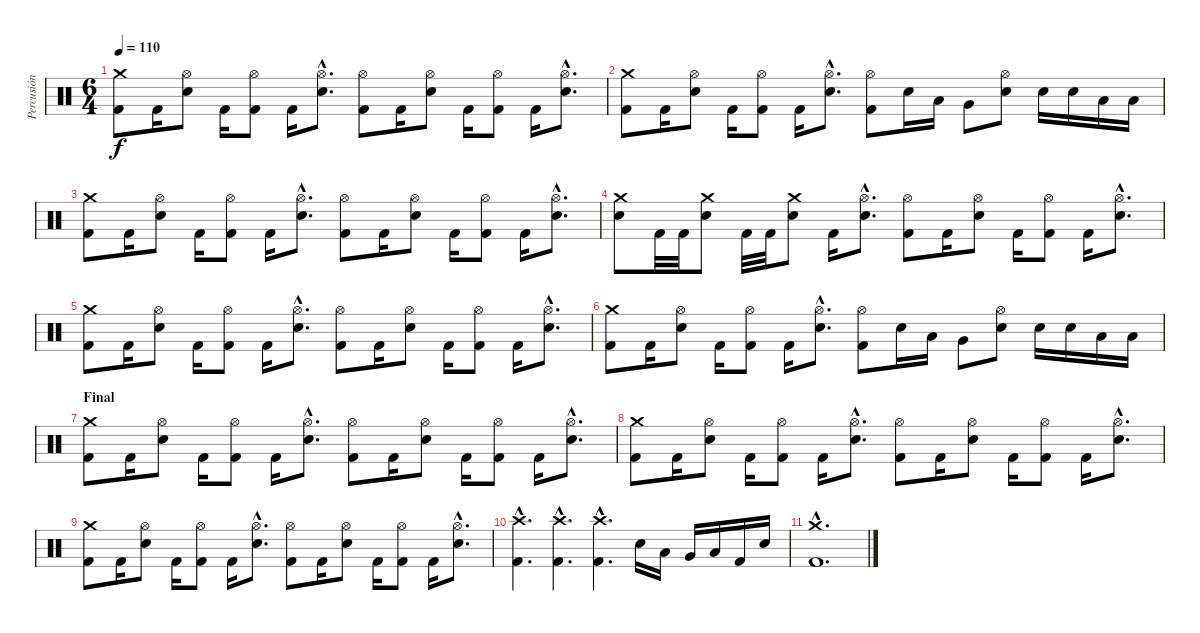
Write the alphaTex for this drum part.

\track ("Percusión" "Percusión") {instrument percussion}
\staff {score}
\articulation defaults
\ts (6 4)
\tempo 110
\clef neutral
\ks c
("Crash medium (hit)" "Kick (hit) 2").8{dy f} "Kick (hit) 2".16 ("Hi-Hat (open)" "Snare (hit) 2").8 "Kick (hit) 2".16 ("Hi-Hat (open)" "Kick (hit) 2").8 "Kick (hit) 2".16 ("Hi-Hat (open)"{hac} "Snare (hit) 2"{hac}).8{d} ("Hi-Hat (open)" "Kick (hit) 2").8 "Kick (hit) 2".16 ("Hi-Hat (open)" "Snare (hit) 2").8 "Kick (hit) 2".16 ("Hi-Hat (open)" "Kick (hit) 2").8 "Kick (hit) 2".16 ("Hi-Hat (open)" "Snare (hit) 2"{hac}).8{d} |
("Crash medium (hit)" "Kick (hit) 2").8 "Kick (hit) 2".16 ("Hi-Hat (open)" "Snare (hit) 2").8 "Kick (hit) 2".16 ("Hi-Hat (open)" "Kick (hit) 2").8 "Kick (hit) 2".16 ("Hi-Hat (open)"{hac} "Snare (hit) 2"{hac}).8{d} ("Hi-Hat (open)" "Kick (hit) 2").8 "Snare (hit) 2".16 "Low Tom (hit)".16 "Very Low Tom (hit)".8 ("Hi-Hat (open)" "Snare (hit) 2").8 "Snare (hit) 2".16 "Snare (hit) 2".16 "Low Tom (hit)".16 "Low Tom (hit)".16 |
("Crash medium (hit)" "Kick (hit) 2").8 "Kick (hit) 2".16 ("Hi-Hat (open)" "Snare (hit) 2").8 "Kick (hit) 2".16 ("Hi-Hat (open)" "Kick (hit) 2").8 "Kick (hit) 2".16 ("Hi-Hat (open)"{hac} "Snare (hit) 2"{hac}).8{d} ("Hi-Hat (open)" "Kick (hit) 2").8 "Kick (hit) 2".16 ("Hi-Hat (open)" "Snare (hit) 2").8 "Kick (hit) 2".16 ("Hi-Hat (open)" "Kick (hit) 2").8 "Kick (hit) 2".16 ("Hi-Hat (open)" "Snare (hit) 2"{hac}).8{d} |
("Crash medium (hit)" "Snare (hit) 2").8 "Kick (hit) 2".32 "Kick (hit) 2".32 ("Crash medium (hit)" "Snare (hit) 2").8 "Kick (hit) 2".32 "Kick (hit) 2".32 ("Crash medium (hit)" "Snare (hit) 2").8 "Kick (hit) 2".16 ("Hi-Hat (open)"{hac} "Snare (hit) 2"{hac}).8{d} ("Hi-Hat (open)" "Kick (hit) 2").8 "Kick (hit) 2".16 ("Hi-Hat (open)" "Snare (hit) 2").8 "Kick (hit) 2".16 ("Hi-Hat (open)" "Kick (hit) 2").8 "Kick (hit) 2".16 ("Hi-Hat (open)" "Snare (hit) 2"{hac}).8{d} |
("Crash medium (hit)" "Kick (hit) 2").8 "Kick (hit) 2".16 ("Hi-Hat (open)" "Snare (hit) 2").8 "Kick (hit) 2".16 ("Hi-Hat (open)" "Kick (hit) 2").8 "Kick (hit) 2".16 ("Hi-Hat (open)"{hac} "Snare (hit) 2"{hac}).8{d} ("Hi-Hat (open)" "Kick (hit) 2").8 "Kick (hit) 2".16 ("Hi-Hat (open)" "Snare (hit) 2").8 "Kick (hit) 2".16 ("Hi-Hat (open)" "Kick (hit) 2").8 "Kick (hit) 2".16 ("Hi-Hat (open)" "Snare (hit) 2"{hac}).8{d} |
("Crash medium (hit)" "Kick (hit) 2").8 "Kick (hit) 2".16 ("Hi-Hat (open)" "Snare (hit) 2").8 "Kick (hit) 2".16 ("Hi-Hat (open)" "Kick (hit) 2").8 "Kick (hit) 2".16 ("Hi-Hat (open)"{hac} "Snare (hit) 2"{hac}).8{d} ("Hi-Hat (open)" "Kick (hit) 2").8 "Snare (hit) 2".16 "Low Tom (hit)".16 "Very Low Tom (hit)".8 ("Hi-Hat (open)" "Snare (hit) 2").8 "Snare (hit) 2".16 "Snare (hit) 2".16 "Low Tom (hit)".16 "Low Tom (hit)".16 |
\section ("" "Final")
("Crash medium (hit)" "Kick (hit) 2").8 "Kick (hit) 2".16 ("Hi-Hat (open)" "Snare (hit) 2").8 "Kick (hit) 2".16 ("Hi-Hat (open)" "Kick (hit) 2").8 "Kick (hit) 2".16 ("Hi-Hat (open)"{hac} "Snare (hit) 2"{hac}).8{d} ("Hi-Hat (open)" "Kick (hit) 2").8 "Kick (hit) 2".16 ("Hi-Hat (open)" "Snare (hit) 2").8 "Kick (hit) 2".16 ("Hi-Hat (open)" "Kick (hit) 2").8 "Kick (hit) 2".16 ("Hi-Hat (open)" "Snare (hit) 2"{hac}).8{d} |
("Crash medium (hit)" "Kick (hit) 2").8 "Kick (hit) 2".16 ("Hi-Hat (open)" "Snare (hit) 2").8 "Kick (hit) 2".16 ("Hi-Hat (open)" "Kick (hit) 2").8 "Kick (hit) 2".16 ("Hi-Hat (open)"{hac} "Snare (hit) 2"{hac}).8{d} ("Hi-Hat (open)" "Kick (hit) 2").8 "Kick (hit) 2".16 ("Hi-Hat (open)" "Snare (hit) 2").8 "Kick (hit) 2".16 ("Hi-Hat (open)" "Kick (hit) 2").8 "Kick (hit) 2".16 ("Hi-Hat (open)" "Snare (hit) 2"{hac}).8{d} |
("Crash medium (hit)" "Kick (hit) 2").8 "Kick (hit) 2".16 ("Hi-Hat (open)" "Snare (hit) 2").8 "Kick (hit) 2".16 ("Hi-Hat (open)" "Kick (hit) 2").8 "Kick (hit) 2".16 ("Hi-Hat (open)"{hac} "Snare (hit) 2"{hac}).8{d} ("Hi-Hat (open)" "Kick (hit) 2").8 "Kick (hit) 2".16 ("Hi-Hat (open)" "Snare (hit) 2").8 "Kick (hit) 2".16 ("Hi-Hat (open)" "Kick (hit) 2").8 "Kick (hit) 2".16 ("Hi-Hat (open)" "Snare (hit) 2"{hac}).8{d} |
("Crash high (hit)"{hac} "Kick (hit) 2"{hac}).4{d} ("Crash high (hit)"{hac} "Kick (hit) 2"{hac}).4{d} ("Crash high (hit)"{hac} "Kick (hit) 2"{hac}).4{d} "Snare (hit) 2".16 "Low Tom (hit)".16 "Very Low Tom (hit)".16 "Low Floor Tom (hit)".16 "Kick (hit) 2".16 "Snare (hit) 2".16 |
("Kick (hit) 2"{hac} "Crash medium (hit)"{hac}).1{d}
